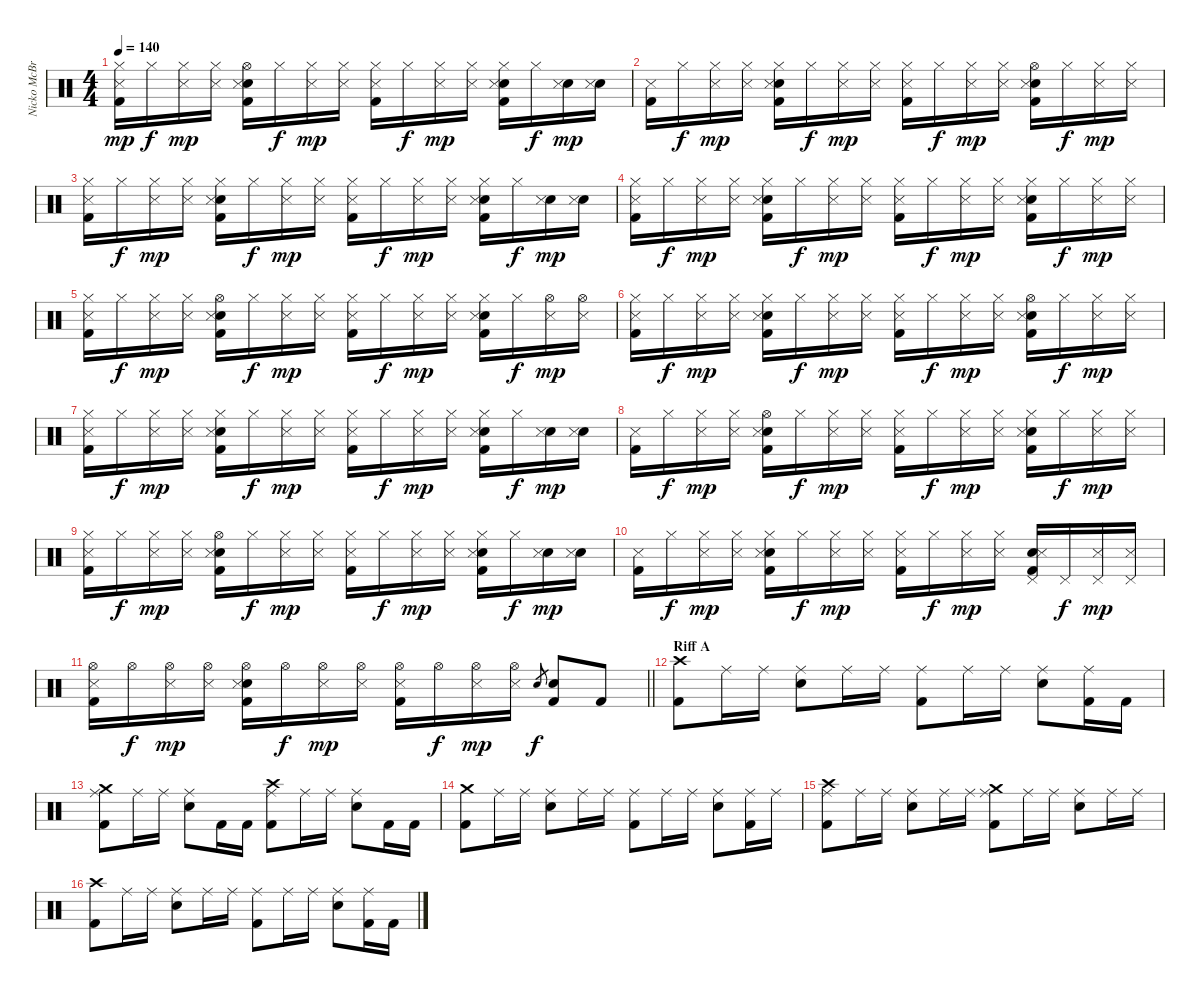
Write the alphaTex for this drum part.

\track ("Nicko McBrain" "Nicko McBr") {instrument percussion}
\staff {score}
\articulation defaults
\ts (4 4)
\tempo 140
\clef neutral
\ks c
("Hi-Hat (closed)" "Snare (side stick) 3" "Kick (hit) 2").16{dy mp} "Hi-Hat (closed)".16{dy f} ("Hi-Hat (closed)" "Snare (side stick) 3").16{dy mp} ("Hi-Hat (closed)" "Snare (side stick) 3").16 ("Hi-Hat (open)" "Snare (hit) 2" "Snare (side stick) 3" "Kick (hit) 2").16 "Hi-Hat (closed)".16{dy f} ("Hi-Hat (closed)" "Snare (side stick) 3").16{dy mp} ("Hi-Hat (closed)" "Snare (side stick) 3").16 ("Hi-Hat (closed)" "Snare (side stick) 3" "Kick (hit) 2").16 "Hi-Hat (closed)".16{dy f} ("Hi-Hat (closed)" "Snare (side stick) 3").16{dy mp} ("Hi-Hat (closed)" "Snare (side stick) 3").16 ("Hi-Hat (closed)" "Snare (hit) 2" "Snare (side stick) 3" "Kick (hit) 2").16 "Hi-Hat (closed)".16{dy f} ("Snare (hit) 2" "Snare (side stick) 3").16{dy mp} ("Snare (hit) 2" "Snare (side stick) 3").16 |
("Snare (side stick) 3" "Kick (hit) 2").16 "Hi-Hat (closed)".16{dy f} ("Hi-Hat (closed)" "Snare (side stick) 3").16{dy mp} ("Hi-Hat (closed)" "Snare (side stick) 3").16 ("Hi-Hat (closed)" "Snare (hit) 2" "Snare (side stick) 3" "Kick (hit) 2").16 "Hi-Hat (closed)".16{dy f} ("Hi-Hat (closed)" "Snare (side stick) 3").16{dy mp} ("Hi-Hat (closed)" "Snare (side stick) 3").16 ("Hi-Hat (closed)" "Snare (side stick) 3" "Kick (hit) 2").16 "Hi-Hat (closed)".16{dy f} ("Hi-Hat (closed)" "Snare (side stick) 3").16{dy mp} ("Hi-Hat (closed)" "Snare (side stick) 3").16 ("Hi-Hat (open)" "Snare (hit) 2" "Snare (side stick) 3" "Kick (hit) 2").16 "Hi-Hat (closed)".16{dy f} ("Hi-Hat (closed)" "Snare (side stick) 3").16{dy mp} ("Hi-Hat (closed)" "Snare (side stick) 3").16 |
("Hi-Hat (closed)" "Snare (side stick) 3" "Kick (hit) 2").16 "Hi-Hat (closed)".16{dy f} ("Hi-Hat (closed)" "Snare (side stick) 3").16{dy mp} ("Hi-Hat (closed)" "Snare (side stick) 3").16 ("Hi-Hat (closed)" "Snare (hit) 2" "Snare (side stick) 3" "Kick (hit) 2").16 "Hi-Hat (closed)".16{dy f} ("Hi-Hat (closed)" "Snare (side stick) 3").16{dy mp} ("Hi-Hat (closed)" "Snare (side stick) 3").16 ("Hi-Hat (closed)" "Snare (side stick) 3" "Kick (hit) 2").16 "Hi-Hat (closed)".16{dy f} ("Hi-Hat (closed)" "Snare (side stick) 3").16{dy mp} ("Hi-Hat (closed)" "Snare (side stick) 3").16 ("Hi-Hat (closed)" "Snare (hit) 2" "Snare (side stick) 3" "Kick (hit) 2").16 "Hi-Hat (closed)".16{dy f} ("Snare (hit) 2" "Snare (side stick) 3").16{dy mp} ("Snare (hit) 2" "Snare (side stick) 3").16 |
("Hi-Hat (closed)" "Snare (side stick) 3" "Kick (hit) 2").16 "Hi-Hat (closed)".16{dy f} ("Hi-Hat (closed)" "Snare (side stick) 3").16{dy mp} ("Hi-Hat (closed)" "Snare (side stick) 3").16 ("Hi-Hat (closed)" "Snare (hit) 2" "Snare (side stick) 3" "Kick (hit) 2").16 "Hi-Hat (closed)".16{dy f} ("Hi-Hat (closed)" "Snare (side stick) 3").16{dy mp} ("Hi-Hat (closed)" "Snare (side stick) 3").16 ("Hi-Hat (closed)" "Snare (side stick) 3" "Kick (hit) 2").16 "Hi-Hat (closed)".16{dy f} ("Hi-Hat (closed)" "Snare (side stick) 3").16{dy mp} ("Hi-Hat (closed)" "Snare (side stick) 3").16 ("Hi-Hat (closed)" "Snare (hit) 2" "Snare (side stick) 3" "Kick (hit) 2").16 "Hi-Hat (closed)".16{dy f} ("Hi-Hat (closed)" "Snare (side stick) 3").16{dy mp} ("Hi-Hat (closed)" "Snare (side stick) 3").16 |
("Hi-Hat (closed)" "Snare (side stick) 3" "Kick (hit) 2").16 "Hi-Hat (closed)".16{dy f} ("Hi-Hat (closed)" "Snare (side stick) 3").16{dy mp} ("Hi-Hat (closed)" "Snare (side stick) 3").16 ("Hi-Hat (open)" "Snare (hit) 2" "Snare (side stick) 3" "Kick (hit) 2").16 "Hi-Hat (closed)".16{dy f} ("Hi-Hat (closed)" "Snare (side stick) 3").16{dy mp} ("Hi-Hat (closed)" "Snare (side stick) 3").16 ("Hi-Hat (closed)" "Snare (side stick) 3" "Kick (hit) 2").16 "Hi-Hat (closed)".16{dy f} ("Hi-Hat (closed)" "Snare (side stick) 3").16{dy mp} ("Hi-Hat (closed)" "Snare (side stick) 3").16 ("Hi-Hat (closed)" "Snare (hit) 2" "Snare (side stick) 3" "Kick (hit) 2").16 "Hi-Hat (closed)".16{dy f} ("Hi-Hat (open)" "Snare (side stick) 3").16{dy mp} ("Hi-Hat (open)" "Snare (side stick) 3").16 |
("Hi-Hat (closed)" "Snare (side stick) 3" "Kick (hit) 2").16 "Hi-Hat (closed)".16{dy f} ("Hi-Hat (closed)" "Snare (side stick) 3").16{dy mp} ("Hi-Hat (closed)" "Snare (side stick) 3").16 ("Hi-Hat (closed)" "Snare (hit) 2" "Snare (side stick) 3" "Kick (hit) 2").16 "Hi-Hat (closed)".16{dy f} ("Hi-Hat (closed)" "Snare (side stick) 3").16{dy mp} ("Hi-Hat (closed)" "Snare (side stick) 3").16 ("Hi-Hat (closed)" "Snare (side stick) 3" "Kick (hit) 2").16 "Hi-Hat (closed)".16{dy f} ("Hi-Hat (closed)" "Snare (side stick) 3").16{dy mp} ("Hi-Hat (closed)" "Snare (side stick) 3").16 ("Hi-Hat (open)" "Snare (hit) 2" "Snare (side stick) 3" "Kick (hit) 2").16 "Hi-Hat (closed)".16{dy f} ("Hi-Hat (closed)" "Snare (side stick) 3").16{dy mp} ("Hi-Hat (closed)" "Snare (side stick) 3").16 |
("Hi-Hat (closed)" "Snare (side stick) 3" "Kick (hit) 2").16 "Hi-Hat (closed)".16{dy f} ("Hi-Hat (closed)" "Snare (side stick) 3").16{dy mp} ("Hi-Hat (closed)" "Snare (side stick) 3").16 ("Hi-Hat (closed)" "Snare (hit) 2" "Snare (side stick) 3" "Kick (hit) 2").16 "Hi-Hat (closed)".16{dy f} ("Hi-Hat (closed)" "Snare (side stick) 3").16{dy mp} ("Hi-Hat (closed)" "Snare (side stick) 3").16 ("Hi-Hat (closed)" "Snare (side stick) 3" "Kick (hit) 2").16 "Hi-Hat (closed)".16{dy f} ("Hi-Hat (closed)" "Snare (side stick) 3").16{dy mp} ("Hi-Hat (closed)" "Snare (side stick) 3").16 ("Hi-Hat (closed)" "Snare (hit) 2" "Snare (side stick) 3" "Kick (hit) 2").16 "Hi-Hat (closed)".16{dy f} ("Snare (hit) 2" "Snare (side stick) 3").16{dy mp} ("Snare (hit) 2" "Snare (side stick) 3").16 |
("Snare (side stick) 3" "Kick (hit) 2").16 "Hi-Hat (closed)".16{dy f} ("Hi-Hat (closed)" "Snare (side stick) 3").16{dy mp} ("Hi-Hat (closed)" "Snare (side stick) 3").16 ("Hi-Hat (open)" "Snare (hit) 2" "Snare (side stick) 3" "Kick (hit) 2").16 "Hi-Hat (closed)".16{dy f} ("Hi-Hat (closed)" "Snare (side stick) 3").16{dy mp} ("Hi-Hat (closed)" "Snare (side stick) 3").16 ("Hi-Hat (closed)" "Snare (side stick) 3" "Kick (hit) 2").16 "Hi-Hat (closed)".16{dy f} ("Hi-Hat (closed)" "Snare (side stick) 3").16{dy mp} ("Hi-Hat (closed)" "Snare (side stick) 3").16 ("Hi-Hat (closed)" "Snare (hit) 2" "Snare (side stick) 3" "Kick (hit) 2").16 "Hi-Hat (closed)".16{dy f} ("Hi-Hat (closed)" "Snare (side stick) 3").16{dy mp} ("Hi-Hat (closed)" "Snare (side stick) 3").16 |
("Hi-Hat (closed)" "Snare (side stick) 3" "Kick (hit) 2").16 "Hi-Hat (closed)".16{dy f} ("Hi-Hat (closed)" "Snare (side stick) 3").16{dy mp} ("Hi-Hat (closed)" "Snare (side stick) 3").16 ("Hi-Hat (open)" "Snare (hit) 2" "Snare (side stick) 3" "Kick (hit) 2").16 "Hi-Hat (closed)".16{dy f} ("Hi-Hat (closed)" "Snare (side stick) 3").16{dy mp} ("Hi-Hat (closed)" "Snare (side stick) 3").16 ("Hi-Hat (closed)" "Snare (side stick) 3" "Kick (hit) 2").16 "Hi-Hat (closed)".16{dy f} ("Hi-Hat (closed)" "Snare (side stick) 3").16{dy mp} ("Hi-Hat (closed)" "Snare (side stick) 3").16 ("Hi-Hat (closed)" "Snare (hit) 2" "Snare (side stick) 3" "Kick (hit) 2").16 "Hi-Hat (closed)".16{dy f} ("Snare (hit) 2" "Snare (side stick) 3").16{dy mp} ("Snare (hit) 2" "Snare (side stick) 3").16 |
("Snare (side stick) 3" "Kick (hit) 2").16 "Hi-Hat (closed)".16{dy f} ("Hi-Hat (closed)" "Snare (side stick) 3").16{dy mp} ("Hi-Hat (closed)" "Snare (side stick) 3").16 ("Hi-Hat (closed)" "Snare (hit) 2" "Snare (side stick) 3" "Kick (hit) 2").16 "Hi-Hat (closed)".16{dy f} ("Hi-Hat (closed)" "Snare (side stick) 3").16{dy mp} ("Hi-Hat (closed)" "Snare (side stick) 3").16 ("Hi-Hat (closed)" "Snare (side stick) 3" "Kick (hit) 2").16 "Hi-Hat (closed)".16{dy f} ("Hi-Hat (closed)" "Snare (side stick) 3").16{dy mp} ("Hi-Hat (closed)" "Snare (side stick) 3").16 ("Pedal Hi-Hat (hit)" "Snare (hit) 2" "Snare (side stick) 3" "Kick (hit) 2").16 "Pedal Hi-Hat (hit)".16{dy f} ("Pedal Hi-Hat (hit)" "Snare (side stick) 3").16{dy mp} ("Pedal Hi-Hat (hit)" "Snare (side stick) 3").16 |
\barLineRight lightlight
("Hi-Hat (open)" "Snare (side stick) 3" "Kick (hit) 2").16 "Hi-Hat (open)".16{dy f} ("Hi-Hat (open)" "Snare (side stick) 3").16{dy mp} ("Hi-Hat (open)" "Snare (side stick) 3").16 ("Hi-Hat (open)" "Snare (hit) 2" "Snare (side stick) 3" "Kick (hit) 2").16 "Hi-Hat (open)".16{dy f} ("Hi-Hat (open)" "Snare (side stick) 3").16{dy mp} ("Hi-Hat (open)" "Snare (side stick) 3").16 ("Hi-Hat (open)" "Snare (side stick) 3" "Kick (hit) 2").16 "Hi-Hat (open)".16{dy f} ("Hi-Hat (open)" "Snare (side stick) 3").16{dy mp} ("Hi-Hat (open)" "Snare (side stick) 3").16 "Snare (hit) 2".8{gr dy f} ("Snare (hit) 2" "Kick (hit) 2").8 "Kick (hit) 2".8 |
\section ("" "Riff A")
("Crash high (hit)" "Kick (hit) 2").8 "Ride (middle)".16 "Ride (middle)".16 ("Ride (middle)" "Snare (hit) 2").8 "Ride (middle)".16 "Ride (middle)".16 ("Ride (middle)" "Kick (hit) 2").8 "Ride (middle)".16 "Ride (middle)".16 ("Ride (middle)" "Snare (hit) 2").8 ("Ride (middle)" "Kick (hit) 2").16 "Kick (hit) 2".16 |
("Ride (middle)" "Crash medium (hit)" "Kick (hit) 2").8 "Ride (middle)".16 "Ride (middle)".16 ("Ride (middle)" "Snare (hit) 2").8 "Kick (hit) 2".16 "Kick (hit) 2".16 ("Ride (middle)" "Crash high (hit)" "Kick (hit) 2").8 "Ride (middle)".16 "Ride (middle)".16 ("Ride (middle)" "Snare (hit) 2").8 "Kick (hit) 2".16 "Kick (hit) 2".16 |
("Crash medium (hit)" "Kick (hit) 2").8 "Ride (middle)".16 "Ride (middle)".16 ("Ride (middle)" "Snare (hit) 2").8 "Ride (middle)".16 "Ride (middle)".16 ("Ride (middle)" "Kick (hit) 2").8 "Ride (middle)".16 "Ride (middle)".16 ("Ride (middle)" "Snare (hit) 2").8 ("Ride (middle)" "Kick (hit) 2").16 "Ride (middle)".16 |
("Ride (middle)" "Crash high (hit)" "Kick (hit) 2").8 "Ride (middle)".16 "Ride (middle)".16 ("Ride (middle)" "Snare (hit) 2").8 "Ride (middle)".16 "Ride (middle)".16 ("Ride (middle)" "Crash medium (hit)" "Kick (hit) 2").8 "Ride (middle)".16 "Ride (middle)".16 ("Ride (middle)" "Snare (hit) 2").8 "Ride (middle)".16 "Ride (middle)".16 |
("Crash high (hit)" "Kick (hit) 2").8 "Ride (middle)".16 "Ride (middle)".16 ("Ride (middle)" "Snare (hit) 2").8 "Ride (middle)".16 "Ride (middle)".16 ("Ride (middle)" "Kick (hit) 2").8 "Ride (middle)".16 "Ride (middle)".16 ("Ride (middle)" "Snare (hit) 2").8 ("Ride (middle)" "Kick (hit) 2").16 "Kick (hit) 2".16
